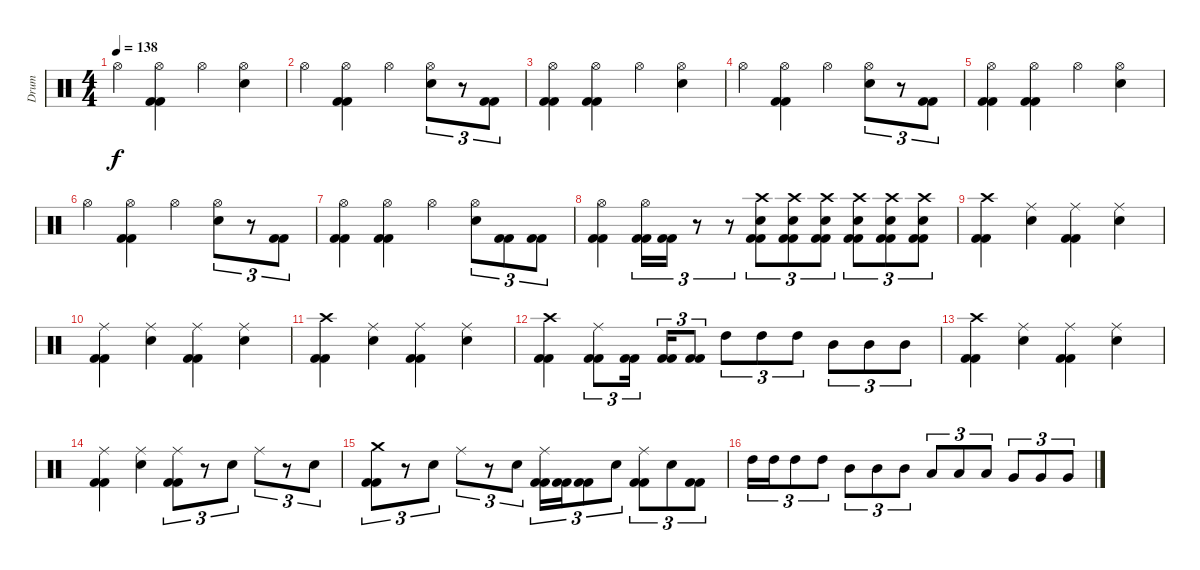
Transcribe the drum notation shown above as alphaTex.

\track ("Drum" "Drum") {instrument percussion}
\staff {score}
\articulation defaults
\ts (4 4)
\tempo 138
\clef neutral
\ks c "Hi-Hat (open)".4{dy f}
("Kick (hit) 2" "Kick (hit) 2" "Hi-Hat (open)").4 "Hi-Hat (open)".4 ("Electric Snare (hit)" "Hi-Hat (open)").4 |
"Hi-Hat (open)".4 ("Kick (hit) 2" "Kick (hit) 2" "Hi-Hat (open)").4 "Hi-Hat (open)".4 ("Electric Snare (hit)" "Hi-Hat (open)").8{tu (3 2)} r.8{tu (3 2)} ("Kick (hit) 2" "Kick (hit) 2").8{tu (3 2)} |
("Kick (hit) 2" "Kick (hit) 2" "Hi-Hat (open)").4 ("Kick (hit) 2" "Kick (hit) 2" "Hi-Hat (open)").4 "Hi-Hat (open)".4 ("Electric Snare (hit)" "Hi-Hat (open)").4 |
"Hi-Hat (open)".4 ("Kick (hit) 2" "Kick (hit) 2" "Hi-Hat (open)").4 "Hi-Hat (open)".4 ("Electric Snare (hit)" "Hi-Hat (open)").8{tu (3 2)} r.8{tu (3 2)} ("Kick (hit) 2" "Kick (hit) 2").8{tu (3 2)} |
("Kick (hit) 2" "Kick (hit) 2" "Hi-Hat (open)").4 ("Kick (hit) 2" "Kick (hit) 2" "Hi-Hat (open)").4 "Hi-Hat (open)".4 ("Electric Snare (hit)" "Hi-Hat (open)").4 |
"Hi-Hat (open)".4 ("Kick (hit) 2" "Kick (hit) 2" "Hi-Hat (open)").4 "Hi-Hat (open)".4 ("Electric Snare (hit)" "Hi-Hat (open)").8{tu (3 2)} r.8{tu (3 2)} ("Kick (hit) 2" "Kick (hit) 2").8{tu (3 2)} |
("Kick (hit) 2" "Kick (hit) 2" "Hi-Hat (open)").4 ("Kick (hit) 2" "Kick (hit) 2" "Hi-Hat (open)").4 "Hi-Hat (open)".4 ("Electric Snare (hit)" "Hi-Hat (open)").8{tu (3 2)} ("Kick (hit) 2" "Kick (hit) 2").8{tu (3 2)} ("Kick (hit) 2" "Kick (hit) 2").8{tu (3 2)} |
("Kick (hit) 2" "Kick (hit) 2" "Hi-Hat (open)").4 ("Kick (hit) 2" "Kick (hit) 2" "Hi-Hat (open)").16{tu (3 2)} ("Kick (hit) 2" "Kick (hit) 2").16{tu (3 2)} r.8{tu (3 2)} r.8{tu (3 2)} ("Kick (hit) 2" "Kick (hit) 2" "Electric Snare (hit)" "Crash high (hit)").8{tu (3 2)} ("Kick (hit) 2" "Kick (hit) 2" "Electric Snare (hit)" "Crash high (hit)").8{tu (3 2)} ("Kick (hit) 2" "Kick (hit) 2" "Electric Snare (hit)" "Crash high (hit)").8{tu (3 2)} ("Kick (hit) 2" "Kick (hit) 2" "Electric Snare (hit)" "Crash high (hit)").8{tu (3 2)} ("Kick (hit) 2" "Kick (hit) 2" "Electric Snare (hit)" "Crash high (hit)").8{tu (3 2)} ("Kick (hit) 2" "Kick (hit) 2" "Electric Snare (hit)" "Crash high (hit)").8{tu (3 2)} |
("Kick (hit) 2" "Kick (hit) 2" "Crash high (hit)").4 ("Electric Snare (hit)" "Ride (middle)").4 ("Kick (hit) 2" "Kick (hit) 2" "Ride (middle)").4 ("Electric Snare (hit)" "Ride (middle)").4 |
("Kick (hit) 2" "Kick (hit) 2" "Ride (middle)").4 ("Electric Snare (hit)" "Ride (middle)").4 ("Kick (hit) 2" "Kick (hit) 2" "Ride (middle)").4 ("Electric Snare (hit)" "Ride (middle)").4 |
("Kick (hit) 2" "Kick (hit) 2" "Crash high (hit)").4 ("Electric Snare (hit)" "Ride (middle)").4 ("Kick (hit) 2" "Kick (hit) 2" "Ride (middle)").4 ("Electric Snare (hit)" "Ride (middle)").4 |
("Kick (hit) 2" "Kick (hit) 2" "Crash high (hit)").4 ("Kick (hit) 2" "Kick (hit) 2" "Ride (middle)").8{tu (3 2)} ("Kick (hit) 2" "Kick (hit) 2").16{tu (3 2)} ("Kick (hit) 2" "Kick (hit) 2").16{tu (3 2)} ("Kick (hit) 2" "Kick (hit) 2").8{tu (3 2)} "High Tom (hit)".8{tu (3 2)} "High Tom (hit)".8{tu (3 2)} "High Tom (hit)".8{tu (3 2)} "Mid Tom (hit)".8{tu (3 2)} "Mid Tom (hit)".8{tu (3 2)} "Mid Tom (hit)".8{tu (3 2)} |
("Kick (hit) 2" "Kick (hit) 2" "Crash high (hit)").4 ("Electric Snare (hit)" "Ride (middle)").4 ("Kick (hit) 2" "Kick (hit) 2" "Ride (middle)").4 ("Electric Snare (hit)" "Ride (middle)").4 |
("Kick (hit) 2" "Kick (hit) 2" "Ride (middle)").4 ("Electric Snare (hit)" "Ride (middle)").4 ("Kick (hit) 2" "Kick (hit) 2" "Ride (middle)").8{tu (3 2)} r.8{tu (3 2)} "Electric Snare (hit)".8{tu (3 2)} "Ride (middle)".8{tu (3 2)} r.8{tu (3 2)} "Electric Snare (hit)".8{tu (3 2)} |
("Kick (hit) 2" "Kick (hit) 2" "Crash medium (hit)").8{tu (3 2)} r.8{tu (3 2)} "Electric Snare (hit)".8{tu (3 2)} "Ride (middle)".8{tu (3 2)} r.8{tu (3 2)} "Electric Snare (hit)".8{tu (3 2)} ("Kick (hit) 2" "Kick (hit) 2" "Ride (middle)").16{tu (3 2)} ("Kick (hit) 2" "Kick (hit) 2").16{tu (3 2)} ("Kick (hit) 2" "Kick (hit) 2").8{tu (3 2)} "Electric Snare (hit)".8{tu (3 2)} ("Kick (hit) 2" "Kick (hit) 2" "Ride (middle)").8{tu (3 2)} "Electric Snare (hit)".8{tu (3 2)} ("Kick (hit) 2" "Kick (hit) 2").8{tu (3 2)} |
"High Tom (hit)".16{tu (3 2)} "High Tom (hit)".16{tu (3 2)} "High Tom (hit)".8{tu (3 2)} "High Tom (hit)".8{tu (3 2)} "Mid Tom (hit)".8{tu (3 2)} "Mid Tom (hit)".8{tu (3 2)} "Mid Tom (hit)".8{tu (3 2)} "Low Tom (hit)".8{tu (3 2)} "Low Tom (hit)".8{tu (3 2)} "Low Tom (hit)".8{tu (3 2)} "Very Low Tom (hit)".8{tu (3 2)} "Very Low Tom (hit)".8{tu (3 2)} "Very Low Tom (hit)".8{tu (3 2)}
